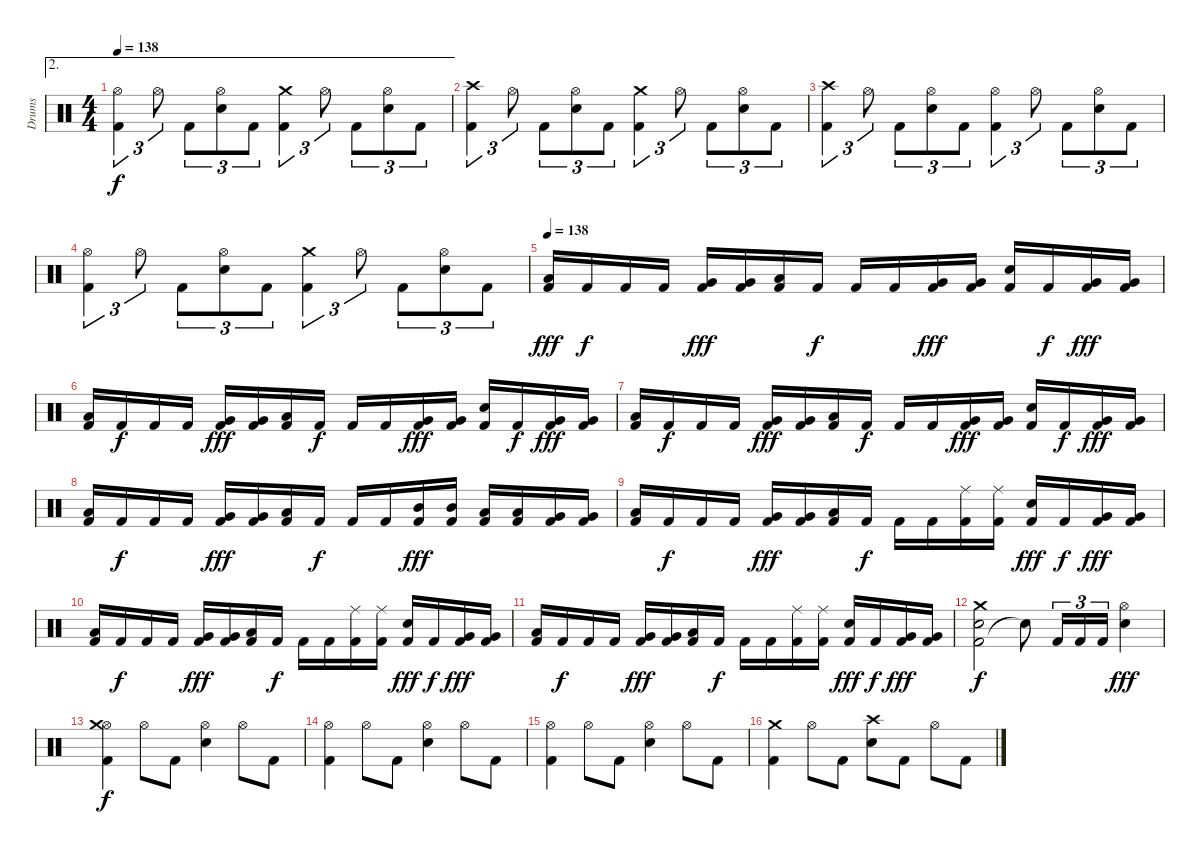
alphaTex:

\track ("Drums" "Drums") {instrument percussion}
\staff {score}
\articulation defaults
\ae 2
\ts (4 4)
\tempo 138
\clef neutral
\ks c
("Kick (hit) 2" "Hi-Hat (open)").4{tu (3 2) dy f} "Hi-Hat (open)".8{tu (3 2)} "Kick (hit) 2".8{tu (3 2)} ("Electric Snare (hit)" "Hi-Hat (open)").8{tu (3 2)} "Kick (hit) 2".8{tu (3 2)} ("Kick (hit) 2" "Crash medium (hit)").4{tu (3 2)} "Hi-Hat (open)".8{tu (3 2)} "Kick (hit) 2".8{tu (3 2)} ("Electric Snare (hit)" "Hi-Hat (open)").8{tu (3 2)} "Kick (hit) 2".8{tu (3 2)} |
("Kick (hit) 2" "Crash high (hit)").4{tu (3 2)} "Hi-Hat (open)".8{tu (3 2)} "Kick (hit) 2".8{tu (3 2)} ("Electric Snare (hit)" "Hi-Hat (open)").8{tu (3 2)} "Kick (hit) 2".8{tu (3 2)} ("Kick (hit) 2" "Crash medium (hit)").4{tu (3 2)} "Hi-Hat (open)".8{tu (3 2)} "Kick (hit) 2".8{tu (3 2)} ("Electric Snare (hit)" "Hi-Hat (open)").8{tu (3 2)} "Kick (hit) 2".8{tu (3 2)} |
("Kick (hit) 2" "Crash high (hit)").4{tu (3 2)} "Hi-Hat (open)".8{tu (3 2)} "Kick (hit) 2".8{tu (3 2)} ("Electric Snare (hit)" "Hi-Hat (open)").8{tu (3 2)} "Kick (hit) 2".8{tu (3 2)} ("Kick (hit) 2" "Hi-Hat (open)").4{tu (3 2)} "Hi-Hat (open)".8{tu (3 2)} "Kick (hit) 2".8{tu (3 2)} ("Electric Snare (hit)" "Hi-Hat (open)").8{tu (3 2)} "Kick (hit) 2".8{tu (3 2)} |
("Kick (hit) 2" "Hi-Hat (open)").4{tu (3 2)} "Hi-Hat (open)".8{tu (3 2)} "Kick (hit) 2".8{tu (3 2)} ("Electric Snare (hit)" "Hi-Hat (open)").8{tu (3 2)} "Kick (hit) 2".8{tu (3 2)} ("Kick (hit) 2" "Crash medium (hit)").4{tu (3 2)} "Hi-Hat (open)".8{tu (3 2)} "Kick (hit) 2".8{tu (3 2)} ("Electric Snare (hit)" "Hi-Hat (open)").8{tu (3 2)} "Kick (hit) 2".8{tu (3 2)} |
\tempo 138
("Kick (hit) 2" "Low Tom (hit)").16{dy fff} "Kick (hit) 2".16{dy f} "Kick (hit) 2".16 "Kick (hit) 2".16 ("Kick (hit) 2" "Very Low Tom (hit)").16{dy fff} ("Kick (hit) 2" "Very Low Tom (hit)").16 ("Kick (hit) 2" "Low Tom (hit)").16 "Kick (hit) 2".16{dy f} "Kick (hit) 2".16 "Kick (hit) 2".16 ("Kick (hit) 2" "Very Low Tom (hit)").16{dy fff} ("Kick (hit) 2" "Very Low Tom (hit)").16 ("Kick (hit) 2" "Electric Snare (hit)").16 "Kick (hit) 2".16{dy f} ("Kick (hit) 2" "Very Low Tom (hit)").16{dy fff} ("Kick (hit) 2" "Very Low Tom (hit)").16 |
("Kick (hit) 2" "Low Tom (hit)").16 "Kick (hit) 2".16{dy f} "Kick (hit) 2".16 "Kick (hit) 2".16 ("Kick (hit) 2" "Very Low Tom (hit)").16{dy fff} ("Kick (hit) 2" "Very Low Tom (hit)").16 ("Kick (hit) 2" "Low Tom (hit)").16 "Kick (hit) 2".16{dy f} "Kick (hit) 2".16 "Kick (hit) 2".16 ("Kick (hit) 2" "Very Low Tom (hit)").16{dy fff} ("Kick (hit) 2" "Very Low Tom (hit)").16 ("Kick (hit) 2" "Electric Snare (hit)").16 "Kick (hit) 2".16{dy f} ("Kick (hit) 2" "Very Low Tom (hit)").16{dy fff} ("Kick (hit) 2" "Very Low Tom (hit)").16 |
("Kick (hit) 2" "Low Tom (hit)").16 "Kick (hit) 2".16{dy f} "Kick (hit) 2".16 "Kick (hit) 2".16 ("Kick (hit) 2" "Very Low Tom (hit)").16{dy fff} ("Kick (hit) 2" "Very Low Tom (hit)").16 ("Kick (hit) 2" "Low Tom (hit)").16 "Kick (hit) 2".16{dy f} "Kick (hit) 2".16 "Kick (hit) 2".16 ("Kick (hit) 2" "Very Low Tom (hit)").16{dy fff} ("Kick (hit) 2" "Very Low Tom (hit)").16 ("Kick (hit) 2" "Electric Snare (hit)").16 "Kick (hit) 2".16{dy f} ("Kick (hit) 2" "Very Low Tom (hit)").16{dy fff} ("Kick (hit) 2" "Very Low Tom (hit)").16 |
("Kick (hit) 2" "Low Tom (hit)").16 "Kick (hit) 2".16{dy f} "Kick (hit) 2".16 "Kick (hit) 2".16 ("Kick (hit) 2" "Very Low Tom (hit)").16{dy fff} ("Kick (hit) 2" "Very Low Tom (hit)").16 ("Kick (hit) 2" "Low Tom (hit)").16 "Kick (hit) 2".16{dy f} "Kick (hit) 2".16 "Kick (hit) 2".16 ("Kick (hit) 2" "Mid Tom (hit)").16{dy fff} ("Kick (hit) 2" "Mid Tom (hit)").16 ("Kick (hit) 2" "Low Tom (hit)").16 ("Kick (hit) 2" "Low Tom (hit)").16 ("Kick (hit) 2" "Very Low Tom (hit)").16 ("Kick (hit) 2" "Very Low Tom (hit)").16 |
("Kick (hit) 2" "Low Tom (hit)").16 "Kick (hit) 2".16{dy f} "Kick (hit) 2".16 "Kick (hit) 2".16 ("Kick (hit) 2" "Very Low Tom (hit)").16{dy fff} ("Kick (hit) 2" "Very Low Tom (hit)").16 ("Kick (hit) 2" "Low Tom (hit)").16 "Kick (hit) 2".16{dy f} "Kick (hit) 2".16 "Kick (hit) 2".16 ("Kick (hit) 2" "Ride (middle)").16 ("Kick (hit) 2" "Ride (middle)").16 ("Kick (hit) 2" "Electric Snare (hit)").16{dy fff} "Kick (hit) 2".16{dy f} ("Kick (hit) 2" "Very Low Tom (hit)").16{dy fff} ("Kick (hit) 2" "Very Low Tom (hit)").16 |
("Kick (hit) 2" "Low Tom (hit)").16 "Kick (hit) 2".16{dy f} "Kick (hit) 2".16 "Kick (hit) 2".16 ("Kick (hit) 2" "Very Low Tom (hit)").16{dy fff} ("Kick (hit) 2" "Very Low Tom (hit)").16 ("Kick (hit) 2" "Low Tom (hit)").16 "Kick (hit) 2".16{dy f} "Kick (hit) 2".16 "Kick (hit) 2".16 ("Kick (hit) 2" "Ride (middle)").16 ("Kick (hit) 2" "Ride (middle)").16 ("Kick (hit) 2" "Electric Snare (hit)").16{dy fff} "Kick (hit) 2".16{dy f} ("Kick (hit) 2" "Very Low Tom (hit)").16{dy fff} ("Kick (hit) 2" "Very Low Tom (hit)").16 |
("Kick (hit) 2" "Low Tom (hit)").16 "Kick (hit) 2".16{dy f} "Kick (hit) 2".16 "Kick (hit) 2".16 ("Kick (hit) 2" "Very Low Tom (hit)").16{dy fff} ("Kick (hit) 2" "Very Low Tom (hit)").16 ("Kick (hit) 2" "Low Tom (hit)").16 "Kick (hit) 2".16{dy f} "Kick (hit) 2".16 "Kick (hit) 2".16 ("Kick (hit) 2" "Ride (middle)").16 ("Kick (hit) 2" "Ride (middle)").16 ("Kick (hit) 2" "Electric Snare (hit)").16{dy fff} "Kick (hit) 2".16{dy f} ("Kick (hit) 2" "Very Low Tom (hit)").16{dy fff} ("Kick (hit) 2" "Very Low Tom (hit)").16 |
("Kick (hit) 2" "Electric Snare (hit)" "Crash medium (hit)").2{dy f} "Snare (hit)"{t}.8 "Kick (hit) 2".16{tu (3 2)} "Kick (hit) 2".16{tu (3 2)} "Kick (hit) 2".16{tu (3 2)} ("Electric Snare (hit)" "Hi-Hat (open)").4{dy fff} |
("Kick (hit) 2" "Hi-Hat (open)" "Crash medium (hit)").4{dy f} "Hi-Hat (open)".8 "Kick (hit) 2".8 ("Electric Snare (hit)" "Hi-Hat (open)").4 "Hi-Hat (open)".8 "Kick (hit) 2".8 |
("Kick (hit) 2" "Hi-Hat (open)").4 "Hi-Hat (open)".8 "Kick (hit) 2".8 ("Electric Snare (hit)" "Hi-Hat (open)").4 "Hi-Hat (open)".8 "Kick (hit) 2".8 |
("Kick (hit) 2" "Hi-Hat (open)").4 "Hi-Hat (open)".8 "Kick (hit) 2".8 ("Electric Snare (hit)" "Hi-Hat (open)").4 "Hi-Hat (open)".8 "Kick (hit) 2".8 |
("Kick (hit) 2" "Crash medium (hit)").4 "Hi-Hat (open)".8 "Kick (hit) 2".8 ("Electric Snare (hit)" "Crash high (hit)").8 "Kick (hit) 2".8 "Hi-Hat (open)".8 "Kick (hit) 2".8
